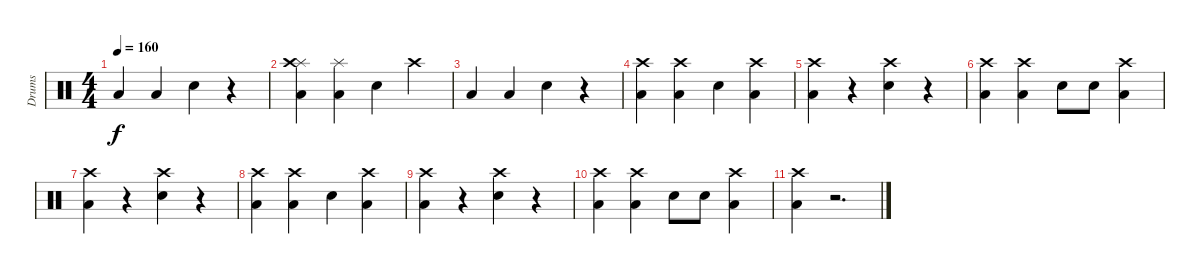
\track ("Drums" "Drums") {instrument percussion}
\staff {score}
\articulation defaults
\ts (4 4)
\tempo 160
\clef neutral
\ks c "Low Floor Tom (hit)".4{dy f} "Low Floor Tom (hit)".4 "Snare (hit) 2".4
r.4 |
("Low Floor Tom (hit)" "Splash (hit)" "Crash high (hit)").4 ("Low Floor Tom (hit)" "Splash (hit)").4 "Snare (hit) 2".4 "Crash high (hit)".4 |
"Low Floor Tom (hit)".4 "Low Floor Tom (hit)".4 "Snare (hit)".4 r.4 |
("Low Floor Tom (hit)" "Crash high (hit)").4 ("Low Floor Tom (hit)" "Crash high (hit)").4 "Snare (hit) 2".4 ("Low Floor Tom (hit)" "Crash high (hit)").4 |
("Low Floor Tom (hit)" "Crash high (hit)").4 r.4 ("Crash high (hit)" "Snare (hit) 2").4 r.4 |
("Low Floor Tom (hit)" "Crash high (hit)").4 ("Low Floor Tom (hit)" "Crash high (hit)").4 "Snare (hit) 2".8 "Snare (hit) 2".8 ("Low Floor Tom (hit)" "Crash high (hit)").4 |
("Low Floor Tom (hit)" "Crash high (hit)").4 r.4 ("Crash high (hit)" "Snare (hit) 2").4 r.4 |
("Low Floor Tom (hit)" "Crash high (hit)").4 ("Low Floor Tom (hit)" "Crash high (hit)").4 "Snare (hit) 2".4 ("Low Floor Tom (hit)" "Crash high (hit)").4 |
("Low Floor Tom (hit)" "Crash high (hit)").4 r.4 ("Crash high (hit)" "Snare (hit) 2").4 r.4 |
("Low Floor Tom (hit)" "Crash high (hit)").4 ("Low Floor Tom (hit)" "Crash high (hit)").4 "Snare (hit) 2".8 "Snare (hit) 2".8 ("Low Floor Tom (hit)" "Crash high (hit)").4 |
("Low Floor Tom (hit)" "Crash high (hit)").4 r.2{d}
